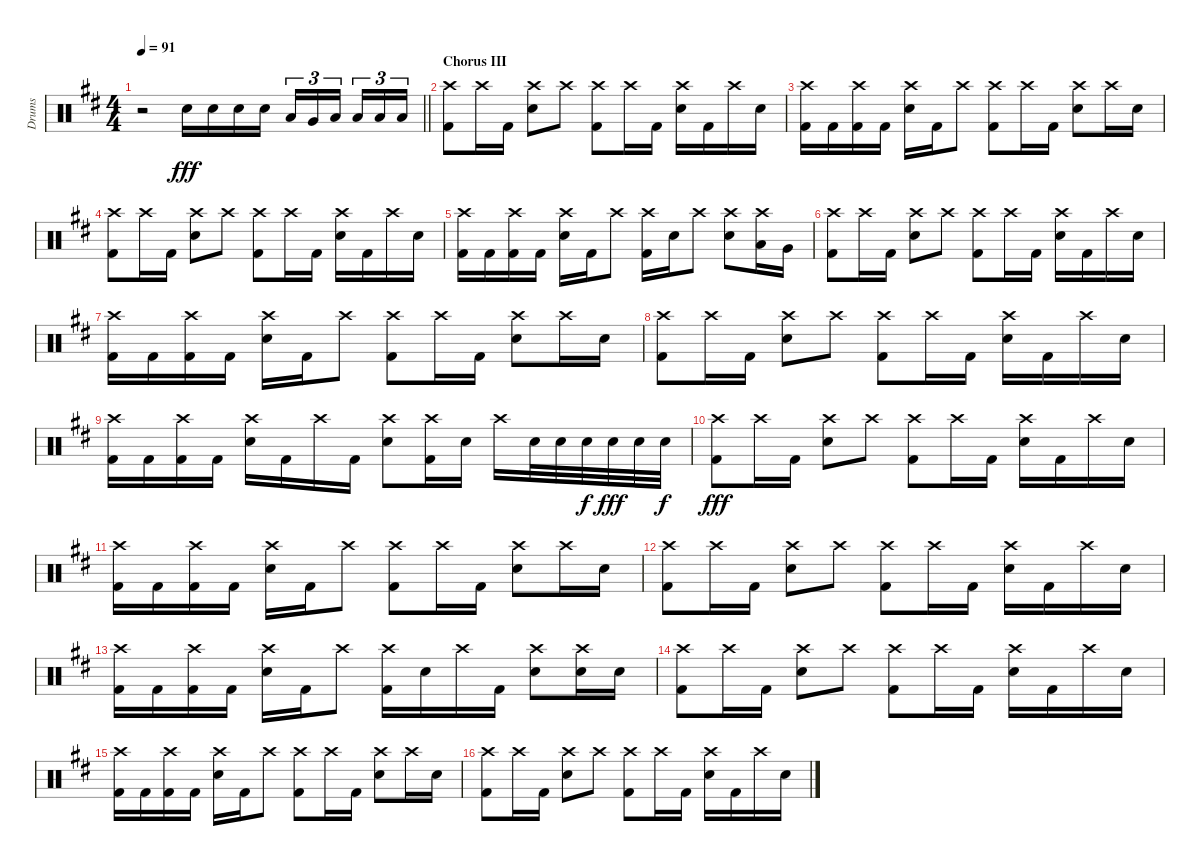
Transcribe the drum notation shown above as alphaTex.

\track ("Drums" "Drums") {instrument percussion}
\staff {score}
\articulation defaults
\ts (4 4)
\tempo 91
\clef neutral
\barLineRight lightlight
\ks d
r.2{dy fff volume 13} "Snare (hit) 2".16 "Snare (hit) 2".16 "Snare (hit) 2".16 "Snare (hit) 2".16 "Low Tom (hit)".16{tu (3 2)} "Very Low Tom (hit)".16{tu (3 2)} "Low Floor Tom (hit)".16{tu (3 2)} "Low Floor Tom (hit)".16{tu (3 2)} "Low Floor Tom (hit)".16{tu (3 2)} "Low Floor Tom (hit)".16{tu (3 2)} |
\section ("" "Chorus III")
("Crash high (hit)" "Kick (hit) 2").8 "Crash high (hit)".16 "Kick (hit) 2".16 ("Crash high (hit)" "Snare (hit) 2").8 "Crash high (hit)".8 ("Crash high (hit)" "Kick (hit) 2").8 "Crash high (hit)".16 "Kick (hit) 2".16 ("Crash high (hit)" "Snare (hit) 2").16 "Kick (hit) 2".16 "Crash high (hit)".16 "Snare (hit) 2".16 |
("Crash high (hit)" "Kick (hit) 2").16 "Kick (hit) 2".16 ("Crash high (hit)" "Kick (hit) 2").16 "Kick (hit) 2".16 ("Crash high (hit)" "Snare (hit) 2").16 "Kick (hit) 2".16 "Crash high (hit)".8 ("Crash high (hit)" "Kick (hit) 2").8 "Crash high (hit)".16 "Kick (hit) 2".16 ("Crash high (hit)" "Snare (hit) 2").8 "Crash high (hit)".16 "Snare (hit) 2".16 |
("Crash high (hit)" "Kick (hit) 2").8 "Crash high (hit)".16 "Kick (hit) 2".16 ("Crash high (hit)" "Snare (hit) 2").8 "Crash high (hit)".8 ("Crash high (hit)" "Kick (hit) 2").8 "Crash high (hit)".16 "Kick (hit) 2".16 ("Crash high (hit)" "Snare (hit) 2").16 "Kick (hit) 2".16 "Crash high (hit)".16 "Snare (hit) 2".16 |
("Crash high (hit)" "Kick (hit) 2").16 "Kick (hit) 2".16 ("Crash high (hit)" "Kick (hit) 2").16 "Kick (hit) 2".16 ("Crash high (hit)" "Snare (hit) 2").16 "Kick (hit) 2".16 "Crash high (hit)".8 ("Crash high (hit)" "Kick (hit) 2").16 "Snare (hit) 2".16 "Crash high (hit)".8 ("Crash high (hit)" "Snare (hit) 2").8 ("Crash high (hit)" "Low Tom (hit)").16 "Very Low Tom (hit)".16 |
("Crash high (hit)" "Kick (hit) 2").8 "Crash high (hit)".16 "Kick (hit) 2".16 ("Crash high (hit)" "Snare (hit) 2").8 "Crash high (hit)".8 ("Crash high (hit)" "Kick (hit) 2").8 "Crash high (hit)".16 "Kick (hit) 2".16 ("Crash high (hit)" "Snare (hit) 2").16 "Kick (hit) 2".16 "Crash high (hit)".16 "Snare (hit) 2".16 |
("Crash high (hit)" "Kick (hit) 2").16 "Kick (hit) 2".16 ("Crash high (hit)" "Kick (hit) 2").16 "Kick (hit) 2".16 ("Crash high (hit)" "Snare (hit) 2").16 "Kick (hit) 2".16 "Crash high (hit)".8 ("Crash high (hit)" "Kick (hit) 2").8 "Crash high (hit)".16 "Kick (hit) 2".16 ("Crash high (hit)" "Snare (hit) 2").8 "Crash high (hit)".16 "Snare (hit) 2".16 |
("Crash high (hit)" "Kick (hit) 2").8 "Crash high (hit)".16 "Kick (hit) 2".16 ("Crash high (hit)" "Snare (hit) 2").8 "Crash high (hit)".8 ("Crash high (hit)" "Kick (hit) 2").8 "Crash high (hit)".16 "Kick (hit) 2".16 ("Crash high (hit)" "Snare (hit) 2").16 "Kick (hit) 2".16 "Crash high (hit)".16 "Snare (hit) 2".16 |
("Crash high (hit)" "Kick (hit) 2").16 "Kick (hit) 2".16 ("Crash high (hit)" "Kick (hit) 2").16 "Kick (hit) 2".16 ("Crash high (hit)" "Snare (hit) 2").16 "Kick (hit) 2".16 "Crash high (hit)".16 "Kick (hit) 2".16 ("Crash high (hit)" "Snare (hit) 2").8 ("Crash high (hit)" "Kick (hit) 2").16 "Snare (hit) 2".16 "Crash high (hit)".16 "Snare (hit) 2".32 "Snare (hit) 2".32 "Snare (hit) 2".32{dy f} "Snare (hit) 2".32{dy fff} "Snare (hit) 2".32 "Snare (hit) 2".32{dy f} |
("Crash high (hit)" "Kick (hit) 2").8{dy fff} "Crash high (hit)".16 "Kick (hit) 2".16 ("Crash high (hit)" "Snare (hit) 2").8 "Crash high (hit)".8 ("Crash high (hit)" "Kick (hit) 2").8 "Crash high (hit)".16 "Kick (hit) 2".16 ("Crash high (hit)" "Snare (hit) 2").16 "Kick (hit) 2".16 "Crash high (hit)".16 "Snare (hit) 2".16 |
("Crash high (hit)" "Kick (hit) 2").16 "Kick (hit) 2".16 ("Crash high (hit)" "Kick (hit) 2").16 "Kick (hit) 2".16 ("Crash high (hit)" "Snare (hit) 2").16 "Kick (hit) 2".16 "Crash high (hit)".8 ("Crash high (hit)" "Kick (hit) 2").8 "Crash high (hit)".16 "Kick (hit) 2".16 ("Crash high (hit)" "Snare (hit) 2").8 "Crash high (hit)".16 "Snare (hit) 2".16 |
("Crash high (hit)" "Kick (hit) 2").8 "Crash high (hit)".16 "Kick (hit) 2".16 ("Crash high (hit)" "Snare (hit) 2").8 "Crash high (hit)".8 ("Crash high (hit)" "Kick (hit) 2").8 "Crash high (hit)".16 "Kick (hit) 2".16 ("Crash high (hit)" "Snare (hit) 2").16 "Kick (hit) 2".16 "Crash high (hit)".16 "Snare (hit) 2".16 |
("Crash high (hit)" "Kick (hit) 2").16 "Kick (hit) 2".16 ("Crash high (hit)" "Kick (hit) 2").16 "Kick (hit) 2".16 ("Crash high (hit)" "Snare (hit) 2").16 "Kick (hit) 2".16 "Crash high (hit)".8 ("Crash high (hit)" "Kick (hit) 2").16 "Snare (hit) 2".16 "Crash high (hit)".16 "Kick (hit) 2".16 ("Crash high (hit)" "Snare (hit) 2").8 ("Crash high (hit)" "Snare (hit) 2").16 "Snare (hit) 2".16 |
("Crash high (hit)" "Kick (hit) 2").8 "Crash high (hit)".16 "Kick (hit) 2".16 ("Crash high (hit)" "Snare (hit) 2").8 "Crash high (hit)".8 ("Crash high (hit)" "Kick (hit) 2").8 "Crash high (hit)".16 "Kick (hit) 2".16 ("Crash high (hit)" "Snare (hit) 2").16 "Kick (hit) 2".16 "Crash high (hit)".16 "Snare (hit) 2".16 |
("Crash high (hit)" "Kick (hit) 2").16 "Kick (hit) 2".16 ("Crash high (hit)" "Kick (hit) 2").16 "Kick (hit) 2".16 ("Crash high (hit)" "Snare (hit) 2").16 "Kick (hit) 2".16 "Crash high (hit)".8 ("Crash high (hit)" "Kick (hit) 2").8 "Crash high (hit)".16 "Kick (hit) 2".16 ("Crash high (hit)" "Snare (hit) 2").8 "Crash high (hit)".16 "Snare (hit) 2".16 |
("Crash high (hit)" "Kick (hit) 2").8 "Crash high (hit)".16 "Kick (hit) 2".16 ("Crash high (hit)" "Snare (hit) 2").8 "Crash high (hit)".8 ("Crash high (hit)" "Kick (hit) 2").8 "Crash high (hit)".16 "Kick (hit) 2".16 ("Crash high (hit)" "Snare (hit) 2").16 "Kick (hit) 2".16 "Crash high (hit)".16 "Snare (hit) 2".16
